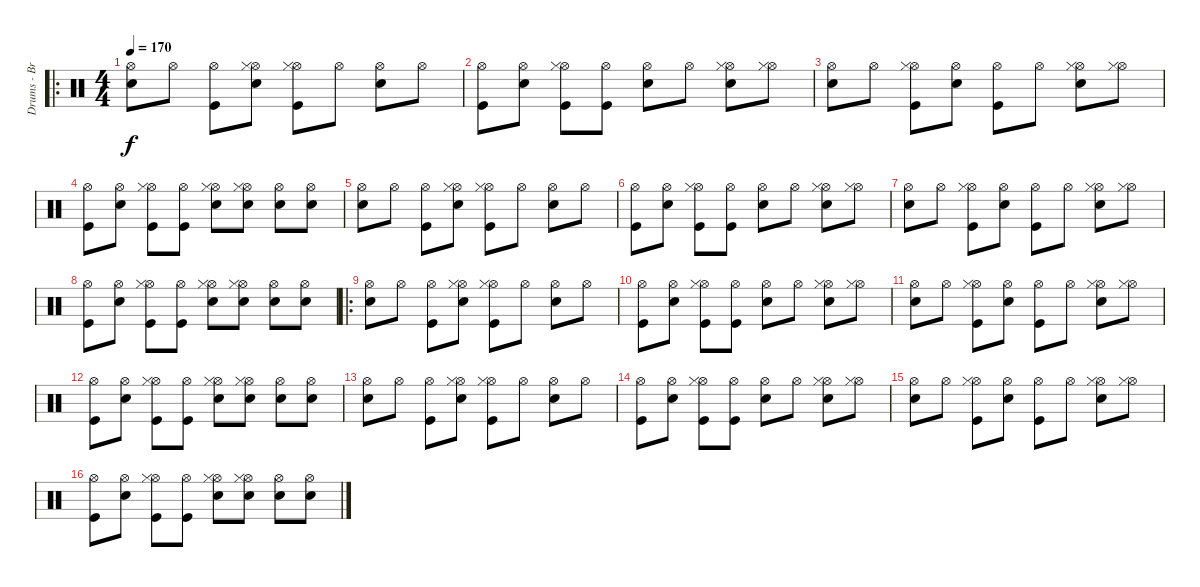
\track ("Drums - Branden Steineckert" "Drums - Br") {instrument percussion}
\staff {score}
\articulation defaults
\ro
\ts (4 4)
\tempo 170
\clef neutral
\ks c
("Hi-Hat (open)" "Electric Snare (hit)").8{dy f} "Hi-Hat (open)".8 ("Hi-Hat (open)" "Kick (hit)").8 ("Hi-Hat (open)" "Hi-Hat (closed)" "Electric Snare (hit)").8 ("Hi-Hat (open)" "Hi-Hat (closed)" "Kick (hit)").8 "Hi-Hat (open)".8 ("Hi-Hat (open)" "Electric Snare (hit)").8 "Hi-Hat (open)".8 |
("Hi-Hat (open)" "Kick (hit)").8 ("Hi-Hat (open)" "Electric Snare (hit)").8 ("Hi-Hat (open)" "Hi-Hat (closed)" "Kick (hit)").8 ("Hi-Hat (open)" "Kick (hit)").8 ("Hi-Hat (open)" "Electric Snare (hit)").8 "Hi-Hat (open)".8 ("Hi-Hat (open)" "Hi-Hat (closed)" "Electric Snare (hit)").8 ("Hi-Hat (open)" "Hi-Hat (closed)").8 |
("Hi-Hat (open)" "Electric Snare (hit)").8 "Hi-Hat (open)".8 ("Hi-Hat (open)" "Hi-Hat (closed)" "Kick (hit)").8 ("Hi-Hat (open)" "Electric Snare (hit)").8 ("Hi-Hat (open)" "Kick (hit)").8 "Hi-Hat (open)".8 ("Hi-Hat (open)" "Hi-Hat (closed)" "Electric Snare (hit)").8 ("Hi-Hat (open)" "Hi-Hat (closed)").8 |
("Hi-Hat (open)" "Kick (hit)").8 ("Hi-Hat (open)" "Electric Snare (hit)").8 ("Hi-Hat (open)" "Hi-Hat (closed)" "Kick (hit)").8 ("Hi-Hat (open)" "Kick (hit)").8 ("Hi-Hat (open)" "Hi-Hat (closed)" "Electric Snare (hit)").8 ("Hi-Hat (open)" "Hi-Hat (closed)" "Electric Snare (hit)").8 ("Hi-Hat (open)" "Electric Snare (hit)").8 ("Hi-Hat (open)" "Electric Snare (hit)").8 |
("Hi-Hat (open)" "Electric Snare (hit)").8 "Hi-Hat (open)".8 ("Hi-Hat (open)" "Kick (hit)").8 ("Hi-Hat (open)" "Hi-Hat (closed)" "Electric Snare (hit)").8 ("Hi-Hat (open)" "Hi-Hat (closed)" "Kick (hit)").8 "Hi-Hat (open)".8 ("Hi-Hat (open)" "Electric Snare (hit)").8 "Hi-Hat (open)".8 |
("Hi-Hat (open)" "Kick (hit)").8 ("Hi-Hat (open)" "Electric Snare (hit)").8 ("Hi-Hat (open)" "Hi-Hat (closed)" "Kick (hit)").8 ("Hi-Hat (open)" "Kick (hit)").8 ("Hi-Hat (open)" "Electric Snare (hit)").8 "Hi-Hat (open)".8 ("Hi-Hat (open)" "Hi-Hat (closed)" "Electric Snare (hit)").8 ("Hi-Hat (open)" "Hi-Hat (closed)").8 |
("Hi-Hat (open)" "Electric Snare (hit)").8 "Hi-Hat (open)".8 ("Hi-Hat (open)" "Hi-Hat (closed)" "Kick (hit)").8 ("Hi-Hat (open)" "Electric Snare (hit)").8 ("Hi-Hat (open)" "Kick (hit)").8 "Hi-Hat (open)".8 ("Hi-Hat (open)" "Hi-Hat (closed)" "Electric Snare (hit)").8 ("Hi-Hat (open)" "Hi-Hat (closed)").8 |
("Hi-Hat (open)" "Kick (hit)").8 ("Hi-Hat (open)" "Electric Snare (hit)").8 ("Hi-Hat (open)" "Hi-Hat (closed)" "Kick (hit)").8 ("Hi-Hat (open)" "Kick (hit)").8 ("Hi-Hat (open)" "Hi-Hat (closed)" "Electric Snare (hit)").8 ("Hi-Hat (open)" "Hi-Hat (closed)" "Electric Snare (hit)").8 ("Hi-Hat (open)" "Electric Snare (hit)").8 ("Hi-Hat (open)" "Electric Snare (hit)").8 |
\ro
("Hi-Hat (open)" "Electric Snare (hit)").8 "Hi-Hat (open)".8 ("Hi-Hat (open)" "Kick (hit)").8 ("Hi-Hat (open)" "Hi-Hat (closed)" "Electric Snare (hit)").8 ("Hi-Hat (open)" "Hi-Hat (closed)" "Kick (hit)").8 "Hi-Hat (open)".8 ("Hi-Hat (open)" "Electric Snare (hit)").8 "Hi-Hat (open)".8 |
("Hi-Hat (open)" "Kick (hit)").8 ("Hi-Hat (open)" "Electric Snare (hit)").8 ("Hi-Hat (open)" "Hi-Hat (closed)" "Kick (hit)").8 ("Hi-Hat (open)" "Kick (hit)").8 ("Hi-Hat (open)" "Electric Snare (hit)").8 "Hi-Hat (open)".8 ("Hi-Hat (open)" "Hi-Hat (closed)" "Electric Snare (hit)").8 ("Hi-Hat (open)" "Hi-Hat (closed)").8 |
("Hi-Hat (open)" "Electric Snare (hit)").8 "Hi-Hat (open)".8 ("Hi-Hat (open)" "Hi-Hat (closed)" "Kick (hit)").8 ("Hi-Hat (open)" "Electric Snare (hit)").8 ("Hi-Hat (open)" "Kick (hit)").8 "Hi-Hat (open)".8 ("Hi-Hat (open)" "Hi-Hat (closed)" "Electric Snare (hit)").8 ("Hi-Hat (open)" "Hi-Hat (closed)").8 |
("Hi-Hat (open)" "Kick (hit)").8 ("Hi-Hat (open)" "Electric Snare (hit)").8 ("Hi-Hat (open)" "Hi-Hat (closed)" "Kick (hit)").8 ("Hi-Hat (open)" "Kick (hit)").8 ("Hi-Hat (open)" "Hi-Hat (closed)" "Electric Snare (hit)").8 ("Hi-Hat (open)" "Hi-Hat (closed)" "Electric Snare (hit)").8 ("Hi-Hat (open)" "Electric Snare (hit)").8 ("Hi-Hat (open)" "Electric Snare (hit)").8 |
("Hi-Hat (open)" "Electric Snare (hit)").8 "Hi-Hat (open)".8 ("Hi-Hat (open)" "Kick (hit)").8 ("Hi-Hat (open)" "Hi-Hat (closed)" "Electric Snare (hit)").8 ("Hi-Hat (open)" "Hi-Hat (closed)" "Kick (hit)").8 "Hi-Hat (open)".8 ("Hi-Hat (open)" "Electric Snare (hit)").8 "Hi-Hat (open)".8 |
("Hi-Hat (open)" "Kick (hit)").8 ("Hi-Hat (open)" "Electric Snare (hit)").8 ("Hi-Hat (open)" "Hi-Hat (closed)" "Kick (hit)").8 ("Hi-Hat (open)" "Kick (hit)").8 ("Hi-Hat (open)" "Electric Snare (hit)").8 "Hi-Hat (open)".8 ("Hi-Hat (open)" "Hi-Hat (closed)" "Electric Snare (hit)").8 ("Hi-Hat (open)" "Hi-Hat (closed)").8 |
("Hi-Hat (open)" "Electric Snare (hit)").8 "Hi-Hat (open)".8 ("Hi-Hat (open)" "Hi-Hat (closed)" "Kick (hit)").8 ("Hi-Hat (open)" "Electric Snare (hit)").8 ("Hi-Hat (open)" "Kick (hit)").8 "Hi-Hat (open)".8 ("Hi-Hat (open)" "Hi-Hat (closed)" "Electric Snare (hit)").8 ("Hi-Hat (open)" "Hi-Hat (closed)").8 |
("Hi-Hat (open)" "Kick (hit)").8 ("Hi-Hat (open)" "Electric Snare (hit)").8 ("Hi-Hat (open)" "Hi-Hat (closed)" "Kick (hit)").8 ("Hi-Hat (open)" "Kick (hit)").8 ("Hi-Hat (open)" "Hi-Hat (closed)" "Electric Snare (hit)").8 ("Hi-Hat (open)" "Hi-Hat (closed)" "Electric Snare (hit)").8 ("Hi-Hat (open)" "Electric Snare (hit)").8 ("Hi-Hat (open)" "Electric Snare (hit)").8
